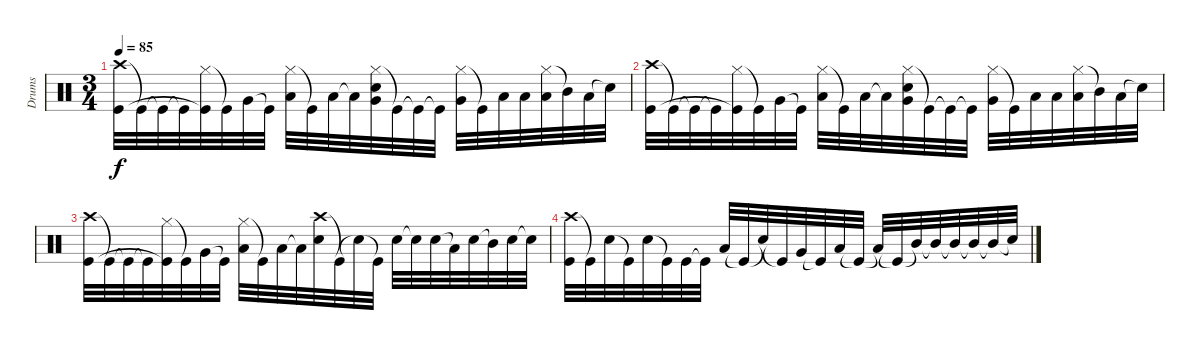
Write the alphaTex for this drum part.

\track ("Drums" "Drums") {instrument percussion}
\staff {score}
\articulation defaults
\ts (3 4)
\tempo 85
\clef neutral
\ks c
("Crash high (hit)" "Kick (hit)").32{dy f} "Kick (hit)"{t}.32 "Kick (hit)"{t}.32 "Kick (hit)"{t}.32 ("Hi-Hat (closed)" "Kick (hit)"{t}).32 "Kick (hit)"{t}.32 "Very Low Tom (hit)".32 "Kick (hit)"{t}.32 ("Hi-Hat (closed)" "Low Floor Tom (hit)").32 "Kick (hit)"{t}.32 "Low Floor Tom (hit)".32 "Low Floor Tom (hit)"{t}.32 ("Hi-Hat (closed)" "Very Low Tom (hit)" "Electric Snare (hit)").32 "Kick (hit)"{t}.32 "Kick (hit)"{t}.32 "Kick (hit)"{t}.32 ("Hi-Hat (closed)" "Very Low Tom (hit)").32 "Kick (hit)"{t}.32 "Low Floor Tom (hit)".32 "Low Floor Tom (hit)".32 ("Hi-Hat (closed)" "Low Floor Tom (hit)").32 "Mid Tom (hit)"{t}.32 "Low Floor Tom (hit)".32 "Snare (hit)"{t}.32 |
("Crash high (hit)" "Kick (hit)").32 "Kick (hit)"{t}.32 "Kick (hit)"{t}.32 "Kick (hit)"{t}.32 ("Hi-Hat (closed)" "Kick (hit)"{t}).32 "Kick (hit)"{t}.32 "Very Low Tom (hit)".32 "Kick (hit)"{t}.32 ("Hi-Hat (closed)" "Low Floor Tom (hit)").32 "Kick (hit)"{t}.32 "Low Floor Tom (hit)".32 "Low Floor Tom (hit)"{t}.32 ("Hi-Hat (closed)" "Very Low Tom (hit)" "Electric Snare (hit)").32 "Kick (hit)"{t}.32 "Kick (hit)"{t}.32 "Kick (hit)"{t}.32 ("Hi-Hat (closed)" "Very Low Tom (hit)").32 "Kick (hit)"{t}.32 "Low Floor Tom (hit)".32 "Low Floor Tom (hit)".32 ("Hi-Hat (closed)" "Low Floor Tom (hit)").32 "Mid Tom (hit)"{t}.32 "Low Floor Tom (hit)".32 "Snare (hit)"{t}.32 |
("Crash high (hit)" "Kick (hit)").32 "Kick (hit)"{t}.32 "Kick (hit)"{t}.32 "Kick (hit)"{t}.32 ("Hi-Hat (closed)" "Kick (hit)"{t}).32 "Kick (hit)"{t}.32 "Very Low Tom (hit)".32 "Kick (hit)"{t}.32 ("Hi-Hat (closed)" "Low Floor Tom (hit)").32 "Kick (hit)"{t}.32 "Low Floor Tom (hit)".32 "Low Floor Tom (hit)"{t}.32 ("Crash high (hit)" "Electric Snare (hit)").32 "Kick (hit)"{t}.32 "Electric Snare (hit)"{t}.32 "Kick (hit)"{t}.32 "Electric Snare (hit)".32 "Electric Snare (hit)"{t}.32 "Electric Snare (hit)".32 "Low Floor Tom (hit)"{t}.32 "Electric Snare (hit)".32 "Mid Tom (hit)"{t}.32 "Electric Snare (hit)".32 "Snare (hit)"{t}.32 |
("Crash high (hit)" "Kick (hit)").32 "Kick (hit)"{t}.32 "Electric Snare (hit)".32 "Kick (hit)"{t}.32 "Electric Snare (hit)".32 "Kick (hit)"{t}.32 "Kick (hit)".32 "Kick (hit)"{t}.32 "Low Tom (hit)".32 "Kick (hit)"{t}.32 "Electric Snare (hit)"{t}.32 "Kick (hit)"{t}.32 "Very Low Tom (hit)".32 "Kick (hit)"{t}.32 "Low Floor Tom (hit)".32 "Kick (hit)"{t}.32 "Low Tom (hit)"{t}.32 "Kick (hit)"{t}.32 "Mid Tom (hit)"{t}.32 "Mid Tom (hit)"{t}.32 "Mid Tom (hit)"{t}.32 "Mid Tom (hit)"{t}.32 "Mid Tom (hit)"{t}.32 "Snare (hit)"{t}.32
